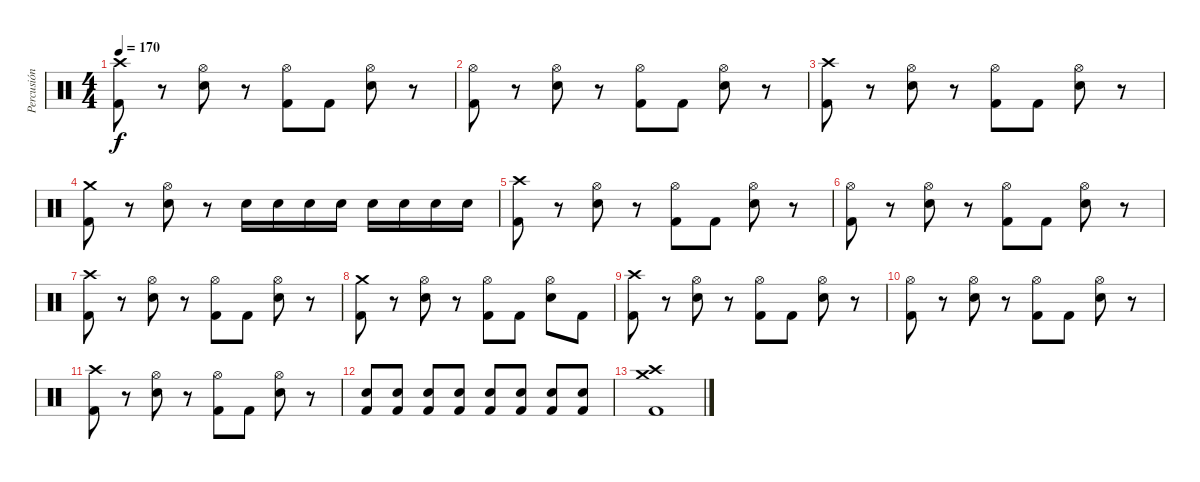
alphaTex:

\track ("Percusión" "Percusión") {instrument percussion}
\staff {score}
\articulation defaults
\ts (4 4)
\tempo 170
\clef neutral
\ks c
("Crash high (hit)" "Kick (hit) 2").8{dy f} r.8 ("Hi-Hat (open)" "Electric Snare (hit)").8 r.8 ("Hi-Hat (open)" "Kick (hit) 2").8 "Kick (hit) 2".8 ("Hi-Hat (open)" "Electric Snare (hit)").8 r.8 |
("Hi-Hat (open)" "Kick (hit) 2").8 r.8 ("Hi-Hat (open)" "Electric Snare (hit)").8 r.8 ("Hi-Hat (open)" "Kick (hit) 2").8 "Kick (hit) 2".8 ("Hi-Hat (open)" "Electric Snare (hit)").8 r.8 |
("Crash high (hit)" "Kick (hit) 2").8 r.8 ("Hi-Hat (open)" "Electric Snare (hit)").8 r.8 ("Hi-Hat (open)" "Kick (hit) 2").8 "Kick (hit) 2".8 ("Hi-Hat (open)" "Electric Snare (hit)").8 r.8 |
("Crash medium (hit)" "Kick (hit) 2").8 r.8 ("Hi-Hat (open)" "Electric Snare (hit)").8 r.8 "Electric Snare (hit)".16 "Electric Snare (hit)".16 "Electric Snare (hit)".16 "Electric Snare (hit)".16 "Electric Snare (hit)".16 "Electric Snare (hit)".16 "Electric Snare (hit)".16 "Electric Snare (hit)".16 |
("Crash high (hit)" "Kick (hit) 2").8 r.8 ("Hi-Hat (open)" "Electric Snare (hit)").8 r.8 ("Hi-Hat (open)" "Kick (hit) 2").8 "Kick (hit) 2".8 ("Hi-Hat (open)" "Electric Snare (hit)").8 r.8 |
("Hi-Hat (open)" "Kick (hit) 2").8 r.8 ("Hi-Hat (open)" "Electric Snare (hit)").8 r.8 ("Hi-Hat (open)" "Kick (hit) 2").8 "Kick (hit) 2".8 ("Hi-Hat (open)" "Electric Snare (hit)").8 r.8 |
("Crash high (hit)" "Kick (hit) 2").8 r.8 ("Hi-Hat (open)" "Electric Snare (hit)").8 r.8 ("Hi-Hat (open)" "Kick (hit) 2").8 "Kick (hit) 2".8 ("Hi-Hat (open)" "Electric Snare (hit)").8 r.8 |
("Crash medium (hit)" "Kick (hit) 2").8 r.8 ("Hi-Hat (open)" "Electric Snare (hit)").8 r.8 ("Hi-Hat (open)" "Kick (hit) 2").8 "Kick (hit) 2".8 ("Hi-Hat (open)" "Electric Snare (hit)").8 "Kick (hit) 2".8 |
("Crash high (hit)" "Kick (hit) 2").8 r.8 ("Hi-Hat (open)" "Electric Snare (hit)").8 r.8 ("Hi-Hat (open)" "Kick (hit) 2").8 "Kick (hit) 2".8 ("Hi-Hat (open)" "Electric Snare (hit)").8 r.8 |
("Hi-Hat (open)" "Kick (hit) 2").8 r.8 ("Hi-Hat (open)" "Electric Snare (hit)").8 r.8 ("Hi-Hat (open)" "Kick (hit) 2").8 "Kick (hit) 2".8 ("Hi-Hat (open)" "Electric Snare (hit)").8 r.8 |
("Crash high (hit)" "Kick (hit) 2").8 r.8 ("Hi-Hat (open)" "Electric Snare (hit)").8 r.8 ("Hi-Hat (open)" "Kick (hit) 2").8 "Kick (hit) 2".8 ("Hi-Hat (open)" "Electric Snare (hit)").8 r.8 |
("Kick (hit) 2" "Electric Snare (hit)").8 ("Kick (hit) 2" "Electric Snare (hit)").8 ("Kick (hit) 2" "Electric Snare (hit)").8 ("Kick (hit) 2" "Electric Snare (hit)").8 ("Kick (hit) 2" "Electric Snare (hit)").8 ("Kick (hit) 2" "Electric Snare (hit)").8 ("Kick (hit) 2" "Electric Snare (hit)").8 ("Kick (hit) 2" "Electric Snare (hit)").8 |
("Crash medium (hit)" "Crash high (hit)" "Kick (hit) 2").1
